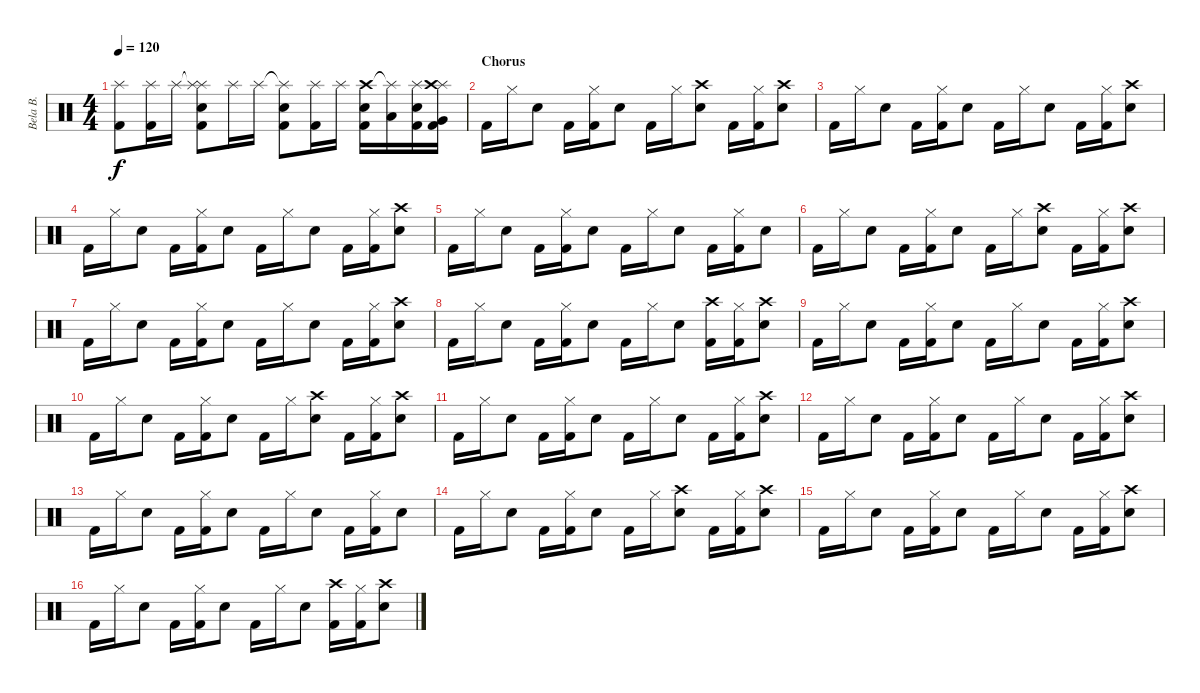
\track ("Bela B." "Bela B.") {instrument percussion}
\staff {score}
\articulation defaults
\ts (4 4)
\tempo 120
\clef neutral
\ks c
("Splash (hit)"{t} "Kick (hit) 2").8{dy f} ("Splash (hit)" "Kick (hit) 2").16 "Splash (hit)".16 ("Splash (hit)"{t} "Electric Snare (hit)" "Splash (hit)" "Kick (hit) 2").8 "Splash (hit)".16 "Splash (hit)".16 ("Splash (hit)"{t} "Electric Snare (hit)" "Kick (hit) 2").8 ("Splash (hit)" "Kick (hit) 2").16 "Splash (hit)".16 ("Crash high (hit)" "Electric Snare (hit)" "Kick (hit) 2").16 ("Splash (hit)"{t} "Low Floor Tom (hit)").16 ("Splash (hit)" "Electric Snare (hit)" "Kick (hit) 2").16 ("Splash (hit)" "Crash high (hit)" "Very Low Tom (hit)" "Kick (hit) 2").16 |
\section ("" "Chorus")
"Kick (hit) 2".16 "Hi-Hat (closed)".16 "Electric Snare (hit)".8 "Kick (hit) 2".16 ("Hi-Hat (closed)" "Kick (hit) 2").16 "Electric Snare (hit)".8 "Kick (hit) 2".16 "Hi-Hat (closed)".16 ("Crash high (hit)" "Electric Snare (hit)").8 "Kick (hit) 2".16 ("Hi-Hat (closed)" "Kick (hit) 2").16 ("Crash high (hit)" "Electric Snare (hit)").8 |
"Kick (hit) 2".16 "Hi-Hat (closed)".16 "Electric Snare (hit)".8 "Kick (hit) 2".16 ("Hi-Hat (closed)" "Kick (hit) 2").16 "Electric Snare (hit)".8 "Kick (hit) 2".16 "Hi-Hat (closed)".16 "Electric Snare (hit)".8 "Kick (hit) 2".16 ("Hi-Hat (closed)" "Kick (hit) 2").16 ("Crash high (hit)" "Electric Snare (hit)").8 |
"Kick (hit) 2".16 "Hi-Hat (closed)".16 "Electric Snare (hit)".8 "Kick (hit) 2".16 ("Hi-Hat (closed)" "Kick (hit) 2").16 "Electric Snare (hit)".8 "Kick (hit) 2".16 "Hi-Hat (closed)".16 "Electric Snare (hit)".8 "Kick (hit) 2".16 ("Hi-Hat (closed)" "Kick (hit) 2").16 ("Crash high (hit)" "Electric Snare (hit)").8 |
"Kick (hit) 2".16 "Hi-Hat (closed)".16 "Electric Snare (hit)".8 "Kick (hit) 2".16 ("Hi-Hat (closed)" "Kick (hit) 2").16 "Electric Snare (hit)".8 "Kick (hit) 2".16 "Hi-Hat (closed)".16 "Electric Snare (hit)".8 "Kick (hit) 2".16 ("Hi-Hat (closed)" "Kick (hit) 2").16 "Electric Snare (hit)".8 |
"Kick (hit) 2".16 "Hi-Hat (closed)".16 "Electric Snare (hit)".8 "Kick (hit) 2".16 ("Hi-Hat (closed)" "Kick (hit) 2").16 "Electric Snare (hit)".8 "Kick (hit) 2".16 "Hi-Hat (closed)".16 ("Crash high (hit)" "Electric Snare (hit)").8 "Kick (hit) 2".16 ("Hi-Hat (closed)" "Kick (hit) 2").16 ("Crash high (hit)" "Electric Snare (hit)").8 |
"Kick (hit) 2".16 "Hi-Hat (closed)".16 "Electric Snare (hit)".8 "Kick (hit) 2".16 ("Hi-Hat (closed)" "Kick (hit) 2").16 "Electric Snare (hit)".8 "Kick (hit) 2".16 "Hi-Hat (closed)".16 "Electric Snare (hit)".8 "Kick (hit) 2".16 ("Hi-Hat (closed)" "Kick (hit) 2").16 ("Crash high (hit)" "Electric Snare (hit)").8 |
"Kick (hit) 2".16 "Hi-Hat (closed)".16 "Electric Snare (hit)".8 "Kick (hit) 2".16 ("Hi-Hat (closed)" "Kick (hit) 2").16 "Electric Snare (hit)".8 "Kick (hit) 2".16 "Hi-Hat (closed)".16 "Electric Snare (hit)".8 ("Crash high (hit)" "Kick (hit) 2").16 ("Hi-Hat (closed)" "Kick (hit) 2").16 ("Crash high (hit)" "Electric Snare (hit)").8 |
"Kick (hit) 2".16 "Hi-Hat (closed)".16 "Electric Snare (hit)".8 "Kick (hit) 2".16 ("Hi-Hat (closed)" "Kick (hit) 2").16 "Electric Snare (hit)".8 "Kick (hit) 2".16 "Hi-Hat (closed)".16 "Electric Snare (hit)".8 "Kick (hit) 2".16 ("Hi-Hat (closed)" "Kick (hit) 2").16 ("Crash high (hit)" "Electric Snare (hit)").8 |
"Kick (hit) 2".16 "Hi-Hat (closed)".16 "Electric Snare (hit)".8 "Kick (hit) 2".16 ("Hi-Hat (closed)" "Kick (hit) 2").16 "Electric Snare (hit)".8 "Kick (hit) 2".16 "Hi-Hat (closed)".16 ("Crash high (hit)" "Electric Snare (hit)").8 "Kick (hit) 2".16 ("Hi-Hat (closed)" "Kick (hit) 2").16 ("Crash high (hit)" "Electric Snare (hit)").8 |
"Kick (hit) 2".16 "Hi-Hat (closed)".16 "Electric Snare (hit)".8 "Kick (hit) 2".16 ("Hi-Hat (closed)" "Kick (hit) 2").16 "Electric Snare (hit)".8 "Kick (hit) 2".16 "Hi-Hat (closed)".16 "Electric Snare (hit)".8 "Kick (hit) 2".16 ("Hi-Hat (closed)" "Kick (hit) 2").16 ("Crash high (hit)" "Electric Snare (hit)").8 |
"Kick (hit) 2".16 "Hi-Hat (closed)".16 "Electric Snare (hit)".8 "Kick (hit) 2".16 ("Hi-Hat (closed)" "Kick (hit) 2").16 "Electric Snare (hit)".8 "Kick (hit) 2".16 "Hi-Hat (closed)".16 "Electric Snare (hit)".8 "Kick (hit) 2".16 ("Hi-Hat (closed)" "Kick (hit) 2").16 ("Crash high (hit)" "Electric Snare (hit)").8 |
"Kick (hit) 2".16 "Hi-Hat (closed)".16 "Electric Snare (hit)".8 "Kick (hit) 2".16 ("Hi-Hat (closed)" "Kick (hit) 2").16 "Electric Snare (hit)".8 "Kick (hit) 2".16 "Hi-Hat (closed)".16 "Electric Snare (hit)".8 "Kick (hit) 2".16 ("Hi-Hat (closed)" "Kick (hit) 2").16 "Electric Snare (hit)".8 |
"Kick (hit) 2".16 "Hi-Hat (closed)".16 "Electric Snare (hit)".8 "Kick (hit) 2".16 ("Hi-Hat (closed)" "Kick (hit) 2").16 "Electric Snare (hit)".8 "Kick (hit) 2".16 "Hi-Hat (closed)".16 ("Crash high (hit)" "Electric Snare (hit)").8 "Kick (hit) 2".16 ("Hi-Hat (closed)" "Kick (hit) 2").16 ("Crash high (hit)" "Electric Snare (hit)").8 |
"Kick (hit) 2".16 "Hi-Hat (closed)".16 "Electric Snare (hit)".8 "Kick (hit) 2".16 ("Hi-Hat (closed)" "Kick (hit) 2").16 "Electric Snare (hit)".8 "Kick (hit) 2".16 "Hi-Hat (closed)".16 "Electric Snare (hit)".8 "Kick (hit) 2".16 ("Hi-Hat (closed)" "Kick (hit) 2").16 ("Crash high (hit)" "Electric Snare (hit)").8 |
"Kick (hit) 2".16 "Hi-Hat (closed)".16 "Electric Snare (hit)".8 "Kick (hit) 2".16 ("Hi-Hat (closed)" "Kick (hit) 2").16 "Electric Snare (hit)".8 "Kick (hit) 2".16 "Hi-Hat (closed)".16 "Electric Snare (hit)".8 ("Crash high (hit)" "Kick (hit) 2").16 ("Hi-Hat (closed)" "Kick (hit) 2").16 ("Crash high (hit)" "Electric Snare (hit)").8
